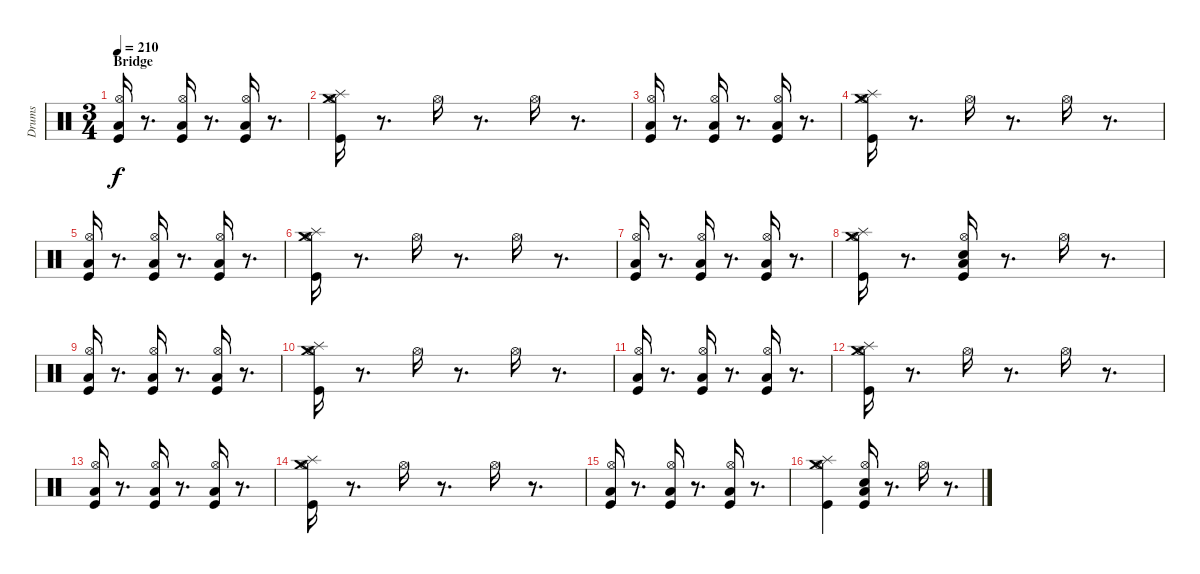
\track ("Drums" "Drums") {instrument percussion}
\staff {score}
\articulation defaults
\ts (3 4)
\section ("" "Bridge")
\tempo 210
\clef neutral
\ks c
("Kick (hit)" "Hi-Hat (open)" "Low Floor Tom (hit)").16{dy f} r.8{d} ("Kick (hit)" "Hi-Hat (open)" "Low Floor Tom (hit)").16 r.8{d} ("Kick (hit)" "Hi-Hat (open)" "Low Floor Tom (hit)").16 r.8{d} |
("Kick (hit)" "Hi-Hat (open)" "Splash (hit)" "Crash medium (hit)").16 r.8{d} "Hi-Hat (open)".16 r.8{d} "Hi-Hat (open)".16 r.8{d} |
("Kick (hit)" "Hi-Hat (open)" "Low Floor Tom (hit)").16 r.8{d} ("Kick (hit)" "Hi-Hat (open)" "Low Floor Tom (hit)").16 r.8{d} ("Kick (hit)" "Hi-Hat (open)" "Low Floor Tom (hit)").16 r.8{d} |
("Kick (hit)" "Hi-Hat (open)" "Splash (hit)" "Crash medium (hit)").16 r.8{d} "Hi-Hat (open)".16 r.8{d} "Hi-Hat (open)".16 r.8{d} |
("Kick (hit)" "Hi-Hat (open)" "Low Floor Tom (hit)").16 r.8{d} ("Kick (hit)" "Hi-Hat (open)" "Low Floor Tom (hit)").16 r.8{d} ("Kick (hit)" "Hi-Hat (open)" "Low Floor Tom (hit)").16 r.8{d} |
("Kick (hit)" "Hi-Hat (open)" "Splash (hit)" "Crash medium (hit)").16 r.8{d} "Hi-Hat (open)".16 r.8{d} "Hi-Hat (open)".16 r.8{d} |
("Kick (hit)" "Hi-Hat (open)" "Low Floor Tom (hit)").16 r.8{d} ("Kick (hit)" "Hi-Hat (open)" "Low Floor Tom (hit)").16 r.8{d} ("Kick (hit)" "Hi-Hat (open)" "Low Floor Tom (hit)").16 r.8{d} |
("Kick (hit)" "Hi-Hat (open)" "Splash (hit)" "Crash medium (hit)").16 r.8{d} ("Kick (hit)" "Low Floor Tom (hit)" "Electric Snare (hit)" "Hi-Hat (open)").16 r.8{d} "Hi-Hat (open)".16 r.8{d} |
("Kick (hit)" "Hi-Hat (open)" "Low Floor Tom (hit)").16 r.8{d} ("Kick (hit)" "Hi-Hat (open)" "Low Floor Tom (hit)").16 r.8{d} ("Kick (hit)" "Hi-Hat (open)" "Low Floor Tom (hit)").16 r.8{d} |
("Kick (hit)" "Hi-Hat (open)" "Splash (hit)" "Crash medium (hit)").16 r.8{d} "Hi-Hat (open)".16 r.8{d} "Hi-Hat (open)".16 r.8{d} |
("Kick (hit)" "Hi-Hat (open)" "Low Floor Tom (hit)").16 r.8{d} ("Kick (hit)" "Hi-Hat (open)" "Low Floor Tom (hit)").16 r.8{d} ("Kick (hit)" "Hi-Hat (open)" "Low Floor Tom (hit)").16 r.8{d} |
("Kick (hit)" "Hi-Hat (open)" "Splash (hit)" "Crash medium (hit)").16 r.8{d} "Hi-Hat (open)".16 r.8{d} "Hi-Hat (open)".16 r.8{d} |
("Kick (hit)" "Hi-Hat (open)" "Low Floor Tom (hit)").16 r.8{d} ("Kick (hit)" "Hi-Hat (open)" "Low Floor Tom (hit)").16 r.8{d} ("Kick (hit)" "Hi-Hat (open)" "Low Floor Tom (hit)").16 r.8{d} |
("Kick (hit)" "Hi-Hat (open)" "Splash (hit)" "Crash medium (hit)").16 r.8{d} "Hi-Hat (open)".16 r.8{d} "Hi-Hat (open)".16 r.8{d} |
("Kick (hit)" "Hi-Hat (open)" "Low Floor Tom (hit)").16 r.8{d} ("Kick (hit)" "Hi-Hat (open)" "Low Floor Tom (hit)").16 r.8{d} ("Kick (hit)" "Hi-Hat (open)" "Low Floor Tom (hit)").16 r.8{d} |
("Kick (hit)" "Hi-Hat (open)" "Splash (hit)" "Crash medium (hit)").4 ("Kick (hit)" "Low Floor Tom (hit)" "Electric Snare (hit)" "Hi-Hat (open)").16 r.8{d} "Hi-Hat (open)".16 r.8{d}
